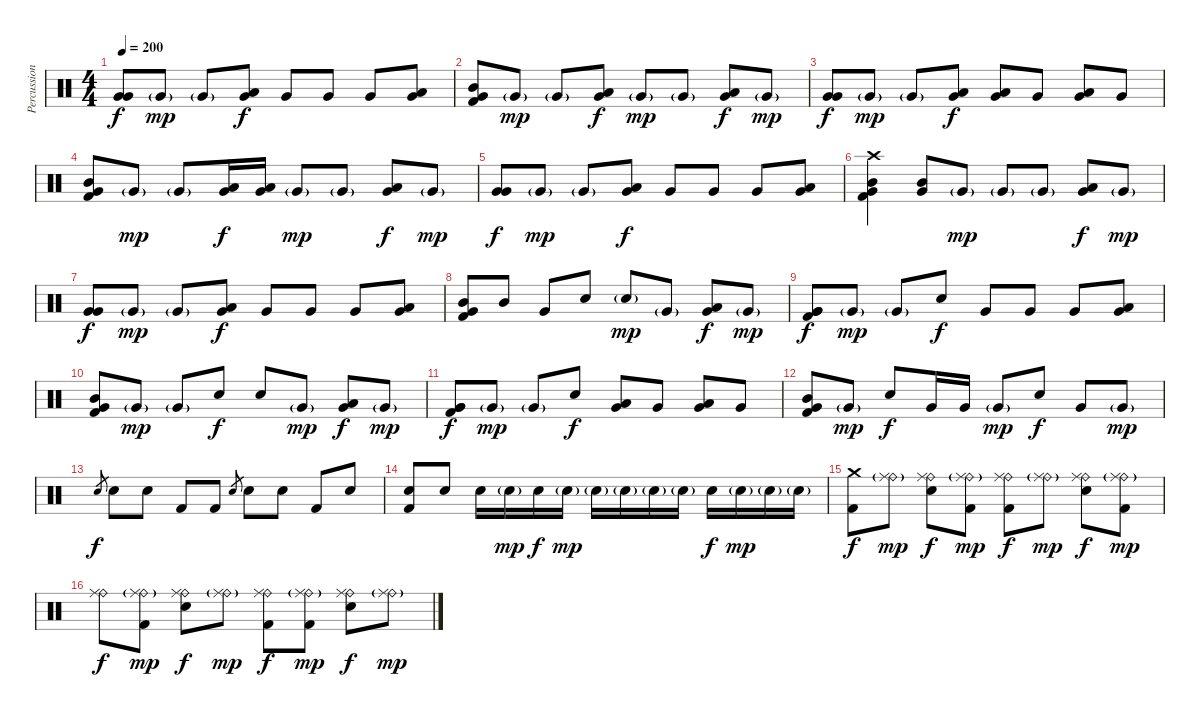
\track ("Percussion" "Percussion") {instrument percussion}
\staff {score}
\articulation defaults
\ts (4 4)
\tempo 200
\clef neutral
\ks c
("Very Low Tom (hit)" "Very Low Tom (hit)").8{dy f} "Very Low Tom (hit)"{g}.8{dy mp} "Very Low Tom (hit)"{g}.8 ("Low Tom (hit)" "Very Low Tom (hit)").8{dy f} "Very Low Tom (hit)".8 "Very Low Tom (hit)".8 "Very Low Tom (hit)".8 ("Low Floor Tom (hit)" "Very Low Tom (hit)").8 |
("Mid Tom (hit)" "Very Low Tom (hit)" "Kick (hit) 2").8 "Very Low Tom (hit)"{g}.8{dy mp} "Very Low Tom (hit)"{g}.8 ("Low Tom (hit)" "Very Low Tom (hit)").8{dy f} "Very Low Tom (hit)"{g}.8{dy mp} "Very Low Tom (hit)"{g}.8 ("Low Floor Tom (hit)" "Very Low Tom (hit)").8{dy f} "Very Low Tom (hit)"{g}.8{dy mp} |
("Very Low Tom (hit)" "Very Low Tom (hit)").8{dy f} "Very Low Tom (hit)"{g}.8{dy mp} "Very Low Tom (hit)"{g}.8 ("Low Tom (hit)" "Very Low Tom (hit)").8{dy f} ("Low Tom (hit)" "Very Low Tom (hit)").8 "Very Low Tom (hit)".8 ("Low Floor Tom (hit)" "Very Low Tom (hit)").8 "Very Low Tom (hit)".8 |
("Mid Tom (hit)" "Very Low Tom (hit)" "Kick (hit) 2").8 "Very Low Tom (hit)"{g}.8{dy mp} "Very Low Tom (hit)"{g}.8 ("Low Tom (hit)" "Very Low Tom (hit)").16{dy f} ("Low Tom (hit)" "Very Low Tom (hit)").16 "Very Low Tom (hit)"{g}.8{dy mp} "Very Low Tom (hit)"{g}.8 ("Low Floor Tom (hit)" "Very Low Tom (hit)").8{dy f} "Very Low Tom (hit)"{g}.8{dy mp} |
("Very Low Tom (hit)" "Very Low Tom (hit)").8{dy f} "Very Low Tom (hit)"{g}.8{dy mp} "Very Low Tom (hit)"{g}.8 ("Low Tom (hit)" "Very Low Tom (hit)").8{dy f} "Very Low Tom (hit)".8 "Very Low Tom (hit)".8 "Very Low Tom (hit)".8 ("Low Floor Tom (hit)" "Very Low Tom (hit)").8 |
("Crash high (hit)" "Mid Tom (hit)" "Very Low Tom (hit)" "Kick (hit) 2").4 ("Mid Tom (hit)" "Very Low Tom (hit)").8 "Very Low Tom (hit)"{g}.8{dy mp} "Very Low Tom (hit)"{g}.8 "Very Low Tom (hit)"{g}.8 ("Low Floor Tom (hit)" "Very Low Tom (hit)").8{dy f} "Very Low Tom (hit)"{g}.8{dy mp} |
("Very Low Tom (hit)" "Very Low Tom (hit)").8{dy f} "Very Low Tom (hit)"{g}.8{dy mp} "Very Low Tom (hit)"{g}.8 ("Low Tom (hit)" "Very Low Tom (hit)").8{dy f} "Very Low Tom (hit)".8 "Very Low Tom (hit)".8 "Very Low Tom (hit)".8 ("Low Floor Tom (hit)" "Very Low Tom (hit)").8 |
("Mid Tom (hit)" "Very Low Tom (hit)" "Kick (hit) 2").8 "Mid Tom (hit)".8 "Very Low Tom (hit)".8 "Electric Snare (hit)".8 "Electric Snare (hit)"{g}.8{dy mp} "Very Low Tom (hit)"{g}.8 ("Low Floor Tom (hit)" "Very Low Tom (hit)").8{dy f} "Very Low Tom (hit)"{g}.8{dy mp} |
("Very Low Tom (hit)" "Very Low Tom (hit)" "Kick (hit) 2").8{dy f} "Very Low Tom (hit)"{g}.8{dy mp} "Very Low Tom (hit)"{g}.8 "Electric Snare (hit)".8{dy f} "Very Low Tom (hit)".8 "Very Low Tom (hit)".8 "Very Low Tom (hit)".8 ("Low Floor Tom (hit)" "Very Low Tom (hit)").8 |
("Mid Tom (hit)" "Very Low Tom (hit)" "Kick (hit) 2").8 "Very Low Tom (hit)"{g}.8{dy mp} "Very Low Tom (hit)"{g}.8 "Electric Snare (hit)".8{dy f} "Electric Snare (hit)".8 "Very Low Tom (hit)"{g}.8{dy mp} ("Low Floor Tom (hit)" "Very Low Tom (hit)").8{dy f} "Very Low Tom (hit)"{g}.8{dy mp} |
("Very Low Tom (hit)" "Very Low Tom (hit)" "Kick (hit) 2").8{dy f} "Very Low Tom (hit)"{g}.8{dy mp} "Very Low Tom (hit)"{g}.8 "Electric Snare (hit)".8{dy f} ("Low Tom (hit)" "Very Low Tom (hit)").8 "Very Low Tom (hit)".8 ("Low Floor Tom (hit)" "Very Low Tom (hit)").8 "Very Low Tom (hit)".8 |
("Mid Tom (hit)" "Very Low Tom (hit)" "Kick (hit) 2").8 "Very Low Tom (hit)"{g}.8{dy mp} "Electric Snare (hit)".8{dy f} "Very Low Tom (hit)".16 "Very Low Tom (hit)".16 "Very Low Tom (hit)"{g}.8{dy mp} "Electric Snare (hit)".8{dy f} "Very Low Tom (hit)".8 "Very Low Tom (hit)"{g}.8{dy mp} |
"Electric Snare (hit)".8{gr dy f} "Electric Snare (hit)".8 "Electric Snare (hit)".8 "Kick (hit) 2".8 "Kick (hit) 2".8 "Electric Snare (hit)".8{gr} "Electric Snare (hit)".8 "Electric Snare (hit)".8 "Kick (hit) 2".8 "Electric Snare (hit)".8 |
("Electric Snare (hit)" "Kick (hit) 2").8 "Electric Snare (hit)".8 "Electric Snare (hit)".16 "Electric Snare (hit)"{g}.16{dy mp} "Electric Snare (hit)".16{dy f} "Electric Snare (hit)"{g}.16{dy mp} "Electric Snare (hit)"{g}.16 "Electric Snare (hit)"{g}.16 "Electric Snare (hit)"{g}.16 "Electric Snare (hit)"{g}.16 "Electric Snare (hit)".16{dy f} "Electric Snare (hit)"{g}.16{dy mp} "Electric Snare (hit)"{g}.16 "Electric Snare (hit)"{g}.16 |
("Crash medium (hit)" "Kick (hit) 2").8{dy f} ("Ride (bell)"{g} "Ride (middle)").8{dy mp} ("Ride (bell)" "Ride (middle)" "Electric Snare (hit)").8{dy f} ("Ride (bell)"{g} "Ride (middle)" "Kick (hit) 2").8{dy mp} ("Ride (bell)" "Ride (middle)" "Kick (hit) 2").8{dy f} ("Ride (bell)"{g} "Ride (middle)").8{dy mp} ("Ride (bell)" "Ride (middle)" "Electric Snare (hit)").8{dy f} ("Ride (bell)"{g} "Ride (middle)" "Kick (hit) 2").8{dy mp} |
("Ride (bell)" "Ride (middle)").8{dy f} ("Ride (bell)"{g} "Ride (middle)" "Kick (hit) 2").8{dy mp} ("Ride (bell)" "Ride (middle)" "Electric Snare (hit)").8{dy f} ("Ride (bell)"{g} "Ride (middle)").8{dy mp} ("Ride (bell)" "Ride (middle)" "Kick (hit) 2").8{dy f} ("Ride (bell)"{g} "Ride (middle)" "Kick (hit) 2").8{dy mp} ("Ride (bell)" "Ride (middle)" "Electric Snare (hit)").8{dy f} ("Ride (bell)"{g} "Ride (middle)").8{dy mp}
